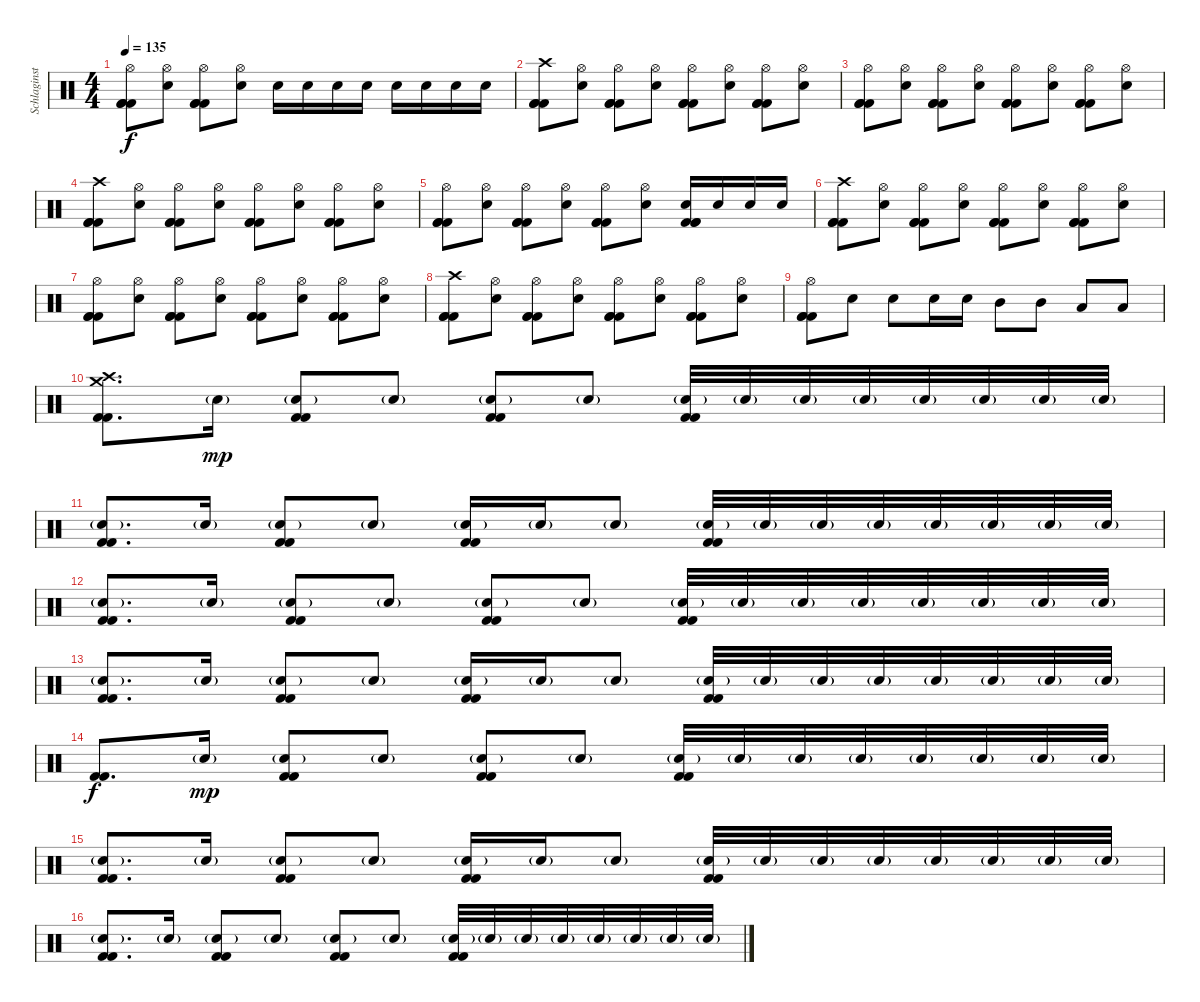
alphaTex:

\track ("Schlaginstrumente - Auswahl" "Schlaginst") {instrument percussion}
\staff {score}
\articulation defaults
\ts (4 4)
\tempo 135
\clef neutral
\ks c
("Hi-Hat (open)" "Kick (hit) 2" "Kick (hit) 2" "Kick (hit) 2").8{dy f} ("Hi-Hat (open)" "Snare (hit) 2").8 ("Hi-Hat (open)" "Kick (hit) 2" "Kick (hit) 2" "Kick (hit) 2").8 ("Hi-Hat (open)" "Snare (hit) 2").8 "Snare (hit) 2".16 "Snare (hit) 2".16 "Snare (hit) 2".16 "Snare (hit) 2".16 "Snare (hit) 2".16 "Snare (hit) 2".16 "Snare (hit) 2".16 "Snare (hit) 2".16 |
("Crash high (hit)" "Kick (hit) 2" "Kick (hit) 2" "Kick (hit) 2").8 ("Hi-Hat (open)" "Snare (hit) 2").8 ("Hi-Hat (open)" "Kick (hit) 2" "Kick (hit) 2" "Kick (hit) 2").8 ("Hi-Hat (open)" "Snare (hit) 2").8 ("Hi-Hat (open)" "Kick (hit) 2" "Kick (hit) 2" "Kick (hit) 2").8 ("Hi-Hat (open)" "Snare (hit) 2").8 ("Hi-Hat (open)" "Kick (hit) 2" "Kick (hit) 2" "Kick (hit) 2").8 ("Hi-Hat (open)" "Snare (hit) 2").8 |
("Hi-Hat (open)" "Kick (hit) 2" "Kick (hit) 2" "Kick (hit) 2").8 ("Hi-Hat (open)" "Snare (hit) 2").8 ("Hi-Hat (open)" "Kick (hit) 2" "Kick (hit) 2" "Kick (hit) 2").8 ("Hi-Hat (open)" "Snare (hit) 2").8 ("Hi-Hat (open)" "Kick (hit) 2" "Kick (hit) 2" "Kick (hit) 2").8 ("Hi-Hat (open)" "Snare (hit) 2").8 ("Hi-Hat (open)" "Kick (hit) 2" "Kick (hit) 2" "Kick (hit) 2").8 ("Hi-Hat (open)" "Snare (hit) 2").8 |
("Crash high (hit)" "Kick (hit) 2" "Kick (hit) 2" "Kick (hit) 2").8 ("Hi-Hat (open)" "Snare (hit) 2").8 ("Hi-Hat (open)" "Kick (hit) 2" "Kick (hit) 2" "Kick (hit) 2").8 ("Hi-Hat (open)" "Snare (hit) 2").8 ("Hi-Hat (open)" "Kick (hit) 2" "Kick (hit) 2" "Kick (hit) 2").8 ("Hi-Hat (open)" "Snare (hit) 2").8 ("Hi-Hat (open)" "Kick (hit) 2" "Kick (hit) 2" "Kick (hit) 2").8 ("Hi-Hat (open)" "Snare (hit) 2").8 |
("Hi-Hat (open)" "Kick (hit) 2" "Kick (hit) 2" "Kick (hit) 2").8 ("Hi-Hat (open)" "Snare (hit) 2").8 ("Hi-Hat (open)" "Kick (hit) 2" "Kick (hit) 2" "Kick (hit) 2").8 ("Hi-Hat (open)" "Snare (hit) 2").8 ("Hi-Hat (open)" "Kick (hit) 2" "Kick (hit) 2" "Kick (hit) 2").8 ("Hi-Hat (open)" "Snare (hit) 2").8 ("Snare (hit) 2" "Kick (hit) 2" "Kick (hit) 2" "Kick (hit) 2").16 "Snare (hit) 2".16 "Snare (hit) 2".16 "Snare (hit) 2".16 |
("Crash high (hit)" "Kick (hit) 2" "Kick (hit) 2" "Kick (hit) 2").8 ("Hi-Hat (open)" "Snare (hit) 2").8 ("Hi-Hat (open)" "Kick (hit) 2" "Kick (hit) 2" "Kick (hit) 2").8 ("Hi-Hat (open)" "Snare (hit) 2").8 ("Hi-Hat (open)" "Kick (hit) 2" "Kick (hit) 2" "Kick (hit) 2").8 ("Hi-Hat (open)" "Snare (hit) 2").8 ("Hi-Hat (open)" "Kick (hit) 2" "Kick (hit) 2" "Kick (hit) 2").8 ("Hi-Hat (open)" "Snare (hit) 2").8 |
("Hi-Hat (open)" "Kick (hit) 2" "Kick (hit) 2" "Kick (hit) 2").8 ("Hi-Hat (open)" "Snare (hit) 2").8 ("Hi-Hat (open)" "Kick (hit) 2" "Kick (hit) 2" "Kick (hit) 2").8 ("Hi-Hat (open)" "Snare (hit) 2").8 ("Hi-Hat (open)" "Kick (hit) 2" "Kick (hit) 2" "Kick (hit) 2").8 ("Hi-Hat (open)" "Snare (hit) 2").8 ("Hi-Hat (open)" "Kick (hit) 2" "Kick (hit) 2" "Kick (hit) 2").8 ("Hi-Hat (open)" "Snare (hit) 2").8 |
("Crash high (hit)" "Kick (hit) 2" "Kick (hit) 2" "Kick (hit) 2").8 ("Hi-Hat (open)" "Snare (hit) 2").8 ("Hi-Hat (open)" "Kick (hit) 2" "Kick (hit) 2" "Kick (hit) 2").8 ("Hi-Hat (open)" "Snare (hit) 2").8 ("Hi-Hat (open)" "Kick (hit) 2" "Kick (hit) 2" "Kick (hit) 2").8 ("Hi-Hat (open)" "Snare (hit) 2").8 ("Hi-Hat (open)" "Kick (hit) 2" "Kick (hit) 2" "Kick (hit) 2").8 ("Hi-Hat (open)" "Snare (hit) 2").8 |
("Hi-Hat (open)" "Kick (hit) 2" "Kick (hit) 2" "Kick (hit) 2").8 "Snare (hit) 2".8 "Snare (hit) 2".8 "Snare (hit) 2".16 "Snare (hit) 2".16 "Mid Tom (hit)".8 "Mid Tom (hit)".8 "Low Tom (hit)".8 "Low Tom (hit)".8 |
("Crash high (hit)" "Crash medium (hit)" "Kick (hit) 2" "Kick (hit) 2").8{d} "Snare (hit) 2"{g}.16{dy mp} ("Snare (hit) 2"{g} "Kick (hit) 2" "Kick (hit) 2").8 "Snare (hit) 2"{g}.8 ("Snare (hit) 2"{g} "Kick (hit) 2" "Kick (hit) 2").8 "Snare (hit) 2"{g}.8 ("Snare (hit) 2"{g} "Kick (hit) 2" "Kick (hit) 2").32 "Snare (hit) 2"{g}.32 "Snare (hit) 2"{g}.32 "Snare (hit) 2"{g}.32 "Snare (hit) 2"{g}.32 "Snare (hit) 2"{g}.32 "Snare (hit) 2"{g}.32 "Snare (hit) 2"{g}.32 |
("Snare (hit) 2"{g} "Kick (hit) 2" "Kick (hit) 2").8{d} "Snare (hit) 2"{g}.16 ("Snare (hit) 2"{g} "Kick (hit) 2" "Kick (hit) 2").8 "Snare (hit) 2"{g}.8 ("Snare (hit) 2"{g} "Kick (hit) 2" "Kick (hit) 2").16 "Snare (hit) 2"{g}.16 "Snare (hit) 2"{g}.8 ("Snare (hit) 2"{g} "Kick (hit) 2" "Kick (hit) 2").32 "Snare (hit) 2"{g}.32 "Snare (hit) 2"{g}.32 "Snare (hit) 2"{g}.32 "Snare (hit) 2"{g}.32 "Snare (hit) 2"{g}.32 "Snare (hit) 2"{g}.32 "Snare (hit) 2"{g}.32 |
("Snare (hit) 2"{g} "Kick (hit) 2" "Kick (hit) 2").8{d} "Snare (hit) 2"{g}.16 ("Snare (hit) 2"{g} "Kick (hit) 2" "Kick (hit) 2").8 "Snare (hit) 2"{g}.8 ("Snare (hit) 2"{g} "Kick (hit) 2" "Kick (hit) 2").8 "Snare (hit) 2"{g}.8 ("Snare (hit) 2"{g} "Kick (hit) 2" "Kick (hit) 2").32 "Snare (hit) 2"{g}.32 "Snare (hit) 2"{g}.32 "Snare (hit) 2"{g}.32 "Snare (hit) 2"{g}.32 "Snare (hit) 2"{g}.32 "Snare (hit) 2"{g}.32 "Snare (hit) 2"{g}.32 |
("Snare (hit) 2"{g} "Kick (hit) 2" "Kick (hit) 2").8{d} "Snare (hit) 2"{g}.16 ("Snare (hit) 2"{g} "Kick (hit) 2" "Kick (hit) 2").8 "Snare (hit) 2"{g}.8 ("Snare (hit) 2"{g} "Kick (hit) 2" "Kick (hit) 2").16 "Snare (hit) 2"{g}.16 "Snare (hit) 2"{g}.8 ("Snare (hit) 2"{g} "Kick (hit) 2" "Kick (hit) 2").32 "Snare (hit) 2"{g}.32 "Snare (hit) 2"{g}.32 "Snare (hit) 2"{g}.32 "Snare (hit) 2"{g}.32 "Snare (hit) 2"{g}.32 "Snare (hit) 2"{g}.32 "Snare (hit) 2"{g}.32 |
("Kick (hit) 2" "Kick (hit) 2").8{d dy f} "Snare (hit) 2"{g}.16{dy mp} ("Snare (hit) 2"{g} "Kick (hit) 2" "Kick (hit) 2").8 "Snare (hit) 2"{g}.8 ("Snare (hit) 2"{g} "Kick (hit) 2" "Kick (hit) 2").8 "Snare (hit) 2"{g}.8 ("Snare (hit) 2"{g} "Kick (hit) 2" "Kick (hit) 2").32 "Snare (hit) 2"{g}.32 "Snare (hit) 2"{g}.32 "Snare (hit) 2"{g}.32 "Snare (hit) 2"{g}.32 "Snare (hit) 2"{g}.32 "Snare (hit) 2"{g}.32 "Snare (hit) 2"{g}.32 |
("Snare (hit) 2"{g} "Kick (hit) 2" "Kick (hit) 2").8{d} "Snare (hit) 2"{g}.16 ("Snare (hit) 2"{g} "Kick (hit) 2" "Kick (hit) 2").8 "Snare (hit) 2"{g}.8 ("Snare (hit) 2"{g} "Kick (hit) 2" "Kick (hit) 2").16 "Snare (hit) 2"{g}.16 "Snare (hit) 2"{g}.8 ("Snare (hit) 2"{g} "Kick (hit) 2" "Kick (hit) 2").32 "Snare (hit) 2"{g}.32 "Snare (hit) 2"{g}.32 "Snare (hit) 2"{g}.32 "Snare (hit) 2"{g}.32 "Snare (hit) 2"{g}.32 "Snare (hit) 2"{g}.32 "Snare (hit) 2"{g}.32 |
("Snare (hit) 2"{g} "Kick (hit) 2" "Kick (hit) 2").8{d} "Snare (hit) 2"{g}.16 ("Snare (hit) 2"{g} "Kick (hit) 2" "Kick (hit) 2").8 "Snare (hit) 2"{g}.8 ("Snare (hit) 2"{g} "Kick (hit) 2" "Kick (hit) 2").8 "Snare (hit) 2"{g}.8 ("Snare (hit) 2"{g} "Kick (hit) 2" "Kick (hit) 2").32 "Snare (hit) 2"{g}.32 "Snare (hit) 2"{g}.32 "Snare (hit) 2"{g}.32 "Snare (hit) 2"{g}.32 "Snare (hit) 2"{g}.32 "Snare (hit) 2"{g}.32 "Snare (hit) 2"{g}.32
